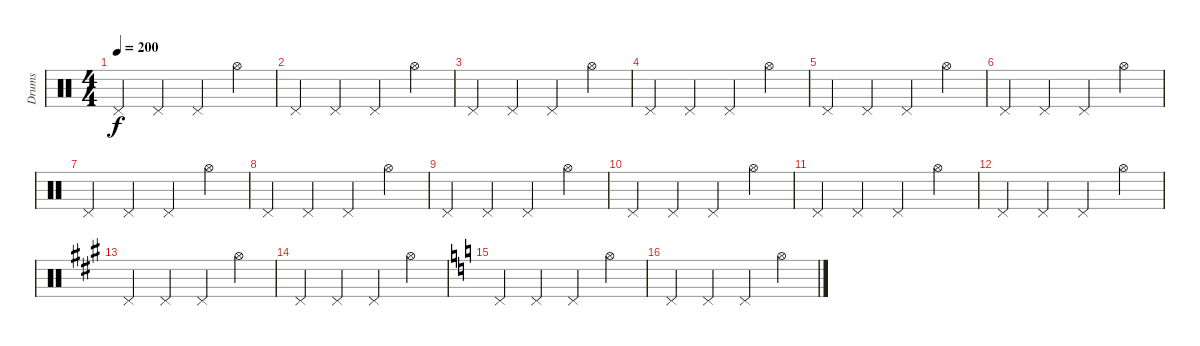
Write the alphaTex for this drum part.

\track ("Drums" "Drums") {instrument percussion}
\staff {score}
\articulation defaults
\ts (4 4)
\tempo 200
\clef neutral
\ks c "Pedal Hi-Hat (hit)".4{dy f} "Pedal Hi-Hat (hit)".4 "Pedal Hi-Hat (hit)".4 "Hi-Hat (open)".4
|
"Pedal Hi-Hat (hit)".4 "Pedal Hi-Hat (hit)".4 "Pedal Hi-Hat (hit)".4 "Hi-Hat (open)".4 |
"Pedal Hi-Hat (hit)".4 "Pedal Hi-Hat (hit)".4 "Pedal Hi-Hat (hit)".4 "Hi-Hat (open)".4 |
"Pedal Hi-Hat (hit)".4 "Pedal Hi-Hat (hit)".4 "Pedal Hi-Hat (hit)".4 "Hi-Hat (open)".4 |
"Pedal Hi-Hat (hit)".4 "Pedal Hi-Hat (hit)".4 "Pedal Hi-Hat (hit)".4 "Hi-Hat (open)".4 |
"Pedal Hi-Hat (hit)".4 "Pedal Hi-Hat (hit)".4 "Pedal Hi-Hat (hit)".4 "Hi-Hat (open)".4 |
"Pedal Hi-Hat (hit)".4 "Pedal Hi-Hat (hit)".4 "Pedal Hi-Hat (hit)".4 "Hi-Hat (open)".4 |
"Pedal Hi-Hat (hit)".4 "Pedal Hi-Hat (hit)".4 "Pedal Hi-Hat (hit)".4 "Hi-Hat (open)".4 |
"Pedal Hi-Hat (hit)".4 "Pedal Hi-Hat (hit)".4 "Pedal Hi-Hat (hit)".4 "Hi-Hat (open)".4 |
"Pedal Hi-Hat (hit)".4 "Pedal Hi-Hat (hit)".4 "Pedal Hi-Hat (hit)".4 "Hi-Hat (open)".4 |
"Pedal Hi-Hat (hit)".4 "Pedal Hi-Hat (hit)".4 "Pedal Hi-Hat (hit)".4 "Hi-Hat (open)".4 |
"Pedal Hi-Hat (hit)".4 "Pedal Hi-Hat (hit)".4 "Pedal Hi-Hat (hit)".4 "Hi-Hat (open)".4 |
\ks a "Pedal Hi-Hat (hit)".4 "Pedal Hi-Hat (hit)".4 "Pedal Hi-Hat (hit)".4 "Hi-Hat (open)".4
|
"Pedal Hi-Hat (hit)".4 "Pedal Hi-Hat (hit)".4 "Pedal Hi-Hat (hit)".4 "Hi-Hat (open)".4 |
\ks c "Pedal Hi-Hat (hit)".4 "Pedal Hi-Hat (hit)".4 "Pedal Hi-Hat (hit)".4 "Hi-Hat (open)".4
|
"Pedal Hi-Hat (hit)".4 "Pedal Hi-Hat (hit)".4 "Pedal Hi-Hat (hit)".4 "Hi-Hat (open)".4
